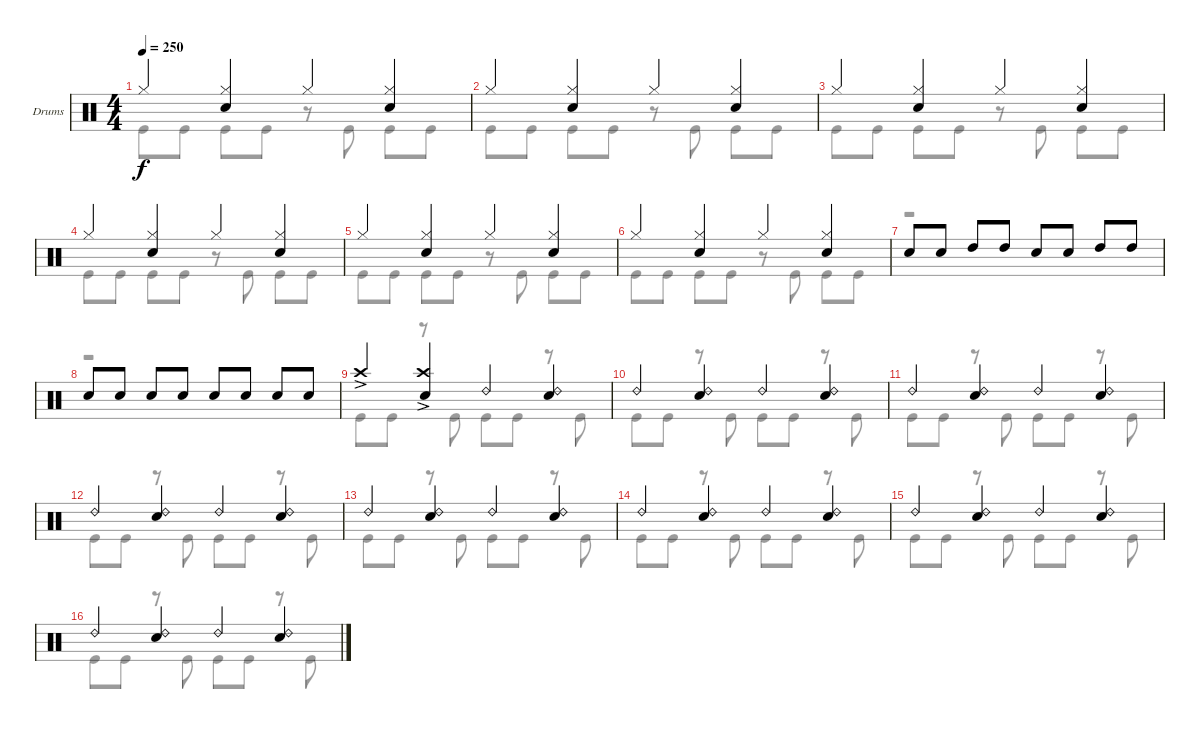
\bracketExtendMode groupsimilarinstruments
\firstSystemTrackNameOrientation horizontal
\otherSystemsTrackNameOrientation horizontal
\track ("Drumkit" "Drums") {instrument percussion}
\staff {score}
\articulation defaults
\voice
\ts (4 4)
\tempo 250
\clef neutral
\ks c "Hi-Hat (closed)".4{dy f}
("Hi-Hat (closed)" "Snare (hit) 2").4 "Hi-Hat (closed)".4 ("Hi-Hat (closed)" "Snare (hit) 2").4 |
"Hi-Hat (closed)".4 ("Hi-Hat (closed)" "Snare (hit) 2").4 "Hi-Hat (closed)".4 ("Hi-Hat (closed)" "Snare (hit) 2").4 |
"Hi-Hat (closed)".4 ("Hi-Hat (closed)" "Snare (hit) 2").4 "Hi-Hat (closed)".4 ("Hi-Hat (closed)" "Snare (hit) 2").4 |
"Hi-Hat (closed)".4 ("Hi-Hat (closed)" "Snare (hit) 2").4 "Hi-Hat (closed)".4 ("Hi-Hat (closed)" "Snare (hit) 2").4 |
"Hi-Hat (closed)".4 ("Hi-Hat (closed)" "Snare (hit) 2").4 "Hi-Hat (closed)".4 ("Hi-Hat (closed)" "Snare (hit) 2").4 |
"Hi-Hat (closed)".4 ("Hi-Hat (closed)" "Snare (hit) 2").4 "Hi-Hat (closed)".4 ("Hi-Hat (closed)" "Snare (hit) 2").4 |
"Snare (hit) 2".8 "Snare (hit) 2".8 "High Tom (hit)".8 "High Tom (hit)".8 "Snare (hit) 2".8 "Snare (hit) 2".8 "High Tom (hit)".8 "High Tom (hit)".8 |
"Snare (hit) 2".8 "Snare (hit) 2".8 "Snare (hit) 2".8 "Snare (hit) 2".8 "Snare (hit) 2".8 "Snare (hit) 2".8 "Snare (hit) 2".8 "Snare (hit) 2".8 |
"Crash high (hit)"{ac}.4 ("Crash high (hit)"{ac} "Snare (hit) 2").4 "Ride (bell) 2".4 ("Ride (bell) 2" "Snare (hit) 2").4 |
"Ride (bell) 2".4 ("Ride (bell) 2" "Snare (hit) 2").4 "Ride (bell) 2".4 ("Ride (bell) 2" "Snare (hit) 2").4 |
"Ride (bell) 2".4 ("Ride (bell) 2" "Snare (hit) 2").4 "Ride (bell) 2".4 ("Ride (bell) 2" "Snare (hit) 2").4 |
"Ride (bell) 2".4 ("Ride (bell) 2" "Snare (hit) 2").4 "Ride (bell) 2".4 ("Ride (bell) 2" "Snare (hit) 2").4 |
"Ride (bell) 2".4 ("Ride (bell) 2" "Snare (hit) 2").4 "Ride (bell) 2".4 ("Ride (bell) 2" "Snare (hit) 2").4 |
"Ride (bell) 2".4 ("Ride (bell) 2" "Snare (hit) 2").4 "Ride (bell) 2".4 ("Ride (bell) 2" "Snare (hit) 2").4 |
"Ride (bell) 2".4 ("Ride (bell) 2" "Snare (hit) 2").4 "Ride (bell) 2".4 ("Ride (bell) 2" "Snare (hit) 2").4 |
"Ride (bell) 2".4 ("Ride (bell) 2" "Snare (hit) 2").4 "Ride (bell) 2".4 ("Ride (bell) 2" "Snare (hit) 2").4
\voice
\clef neutral
\ottava regular
\simile none
\ks c "Kick (hit)".8{dy f} "Kick (hit)".8 "Kick (hit)".8 "Kick (hit)".8
r.8 "Kick (hit)".8 "Kick (hit)".8 "Kick (hit)".8 |
"Kick (hit)".8 "Kick (hit)".8 "Kick (hit)".8 "Kick (hit)".8 r.8 "Kick (hit)".8 "Kick (hit)".8 "Kick (hit)".8 |
"Kick (hit)".8 "Kick (hit)".8 "Kick (hit)".8 "Kick (hit)".8 r.8 "Kick (hit)".8 "Kick (hit)".8 "Kick (hit)".8 |
"Kick (hit)".8 "Kick (hit)".8 "Kick (hit)".8 "Kick (hit)".8 r.8 "Kick (hit)".8 "Kick (hit)".8 "Kick (hit)".8 |
"Kick (hit)".8 "Kick (hit)".8 "Kick (hit)".8 "Kick (hit)".8 r.8 "Kick (hit)".8 "Kick (hit)".8 "Kick (hit)".8 |
"Kick (hit)".8 "Kick (hit)".8 "Kick (hit)".8 "Kick (hit)".8 r.8 "Kick (hit)".8 "Kick (hit)".8 "Kick (hit)".8 |
r.1 |
r.1 |
"Kick (hit)".8 "Kick (hit)".8 r.8 "Kick (hit)".8 "Kick (hit)".8 "Kick (hit)".8 r.8 "Kick (hit)".8 |
"Kick (hit)".8 "Kick (hit)".8 r.8 "Kick (hit)".8 "Kick (hit)".8 "Kick (hit)".8 r.8 "Kick (hit)".8 |
"Kick (hit)".8 "Kick (hit)".8 r.8 "Kick (hit)".8 "Kick (hit)".8 "Kick (hit)".8 r.8 "Kick (hit)".8 |
"Kick (hit)".8 "Kick (hit)".8 r.8 "Kick (hit)".8 "Kick (hit)".8 "Kick (hit)".8 r.8 "Kick (hit)".8 |
"Kick (hit)".8 "Kick (hit)".8 r.8 "Kick (hit)".8 "Kick (hit)".8 "Kick (hit)".8 r.8 "Kick (hit)".8 |
"Kick (hit)".8 "Kick (hit)".8 r.8 "Kick (hit)".8 "Kick (hit)".8 "Kick (hit)".8 r.8 "Kick (hit)".8 |
"Kick (hit)".8 "Kick (hit)".8 r.8 "Kick (hit)".8 "Kick (hit)".8 "Kick (hit)".8 r.8 "Kick (hit)".8 |
"Kick (hit)".8 "Kick (hit)".8 r.8 "Kick (hit)".8 "Kick (hit)".8 "Kick (hit)".8 r.8 "Kick (hit)".8
